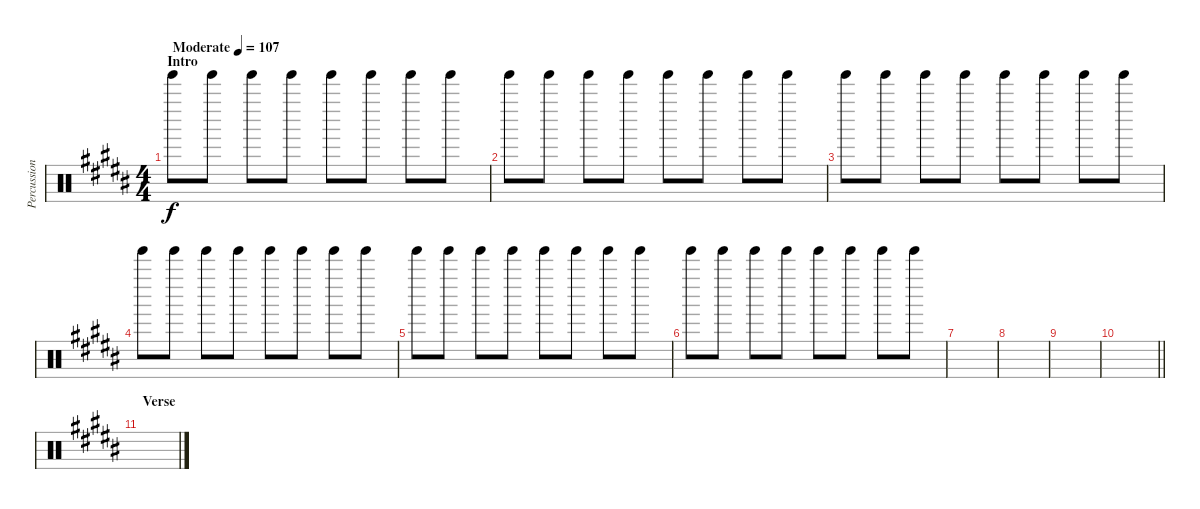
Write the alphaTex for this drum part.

\track ("Percussion" "Percussion") {instrument percussion}
\staff {score}
\articulation defaults
\ts (4 4)
\section ("" "Intro")
\tempo (107 "Moderate")
\clef neutral
\ks b "Tinkle Bell (hit)".8{dy f} "Tinkle Bell (hit)".8 "Tinkle Bell (hit)".8 "Tinkle Bell (hit)".8 "Tinkle Bell (hit)".8 "Tinkle Bell (hit)".8 "Tinkle Bell (hit)".8 "Tinkle Bell (hit)".8
|
"Tinkle Bell (hit)".8 "Tinkle Bell (hit)".8 "Tinkle Bell (hit)".8 "Tinkle Bell (hit)".8 "Tinkle Bell (hit)".8 "Tinkle Bell (hit)".8 "Tinkle Bell (hit)".8 "Tinkle Bell (hit)".8 |
"Tinkle Bell (hit)".8 "Tinkle Bell (hit)".8 "Tinkle Bell (hit)".8 "Tinkle Bell (hit)".8 "Tinkle Bell (hit)".8 "Tinkle Bell (hit)".8 "Tinkle Bell (hit)".8 "Tinkle Bell (hit)".8 |
"Tinkle Bell (hit)".8 "Tinkle Bell (hit)".8 "Tinkle Bell (hit)".8 "Tinkle Bell (hit)".8 "Tinkle Bell (hit)".8 "Tinkle Bell (hit)".8 "Tinkle Bell (hit)".8 "Tinkle Bell (hit)".8 |
"Tinkle Bell (hit)".8 "Tinkle Bell (hit)".8 "Tinkle Bell (hit)".8 "Tinkle Bell (hit)".8{volume 0} "Tinkle Bell (hit)".8 "Tinkle Bell (hit)".8 "Tinkle Bell (hit)".8 "Tinkle Bell (hit)".8 |
"Tinkle Bell (hit)".8 "Tinkle Bell (hit)".8 "Tinkle Bell (hit)".8 "Tinkle Bell (hit)".8 "Tinkle Bell (hit)".8 "Tinkle Bell (hit)".8 "Tinkle Bell (hit)".8 "Tinkle Bell (hit)".8 |
|
|
|
\barLineRight lightlight
|
\section ("" "Verse")
